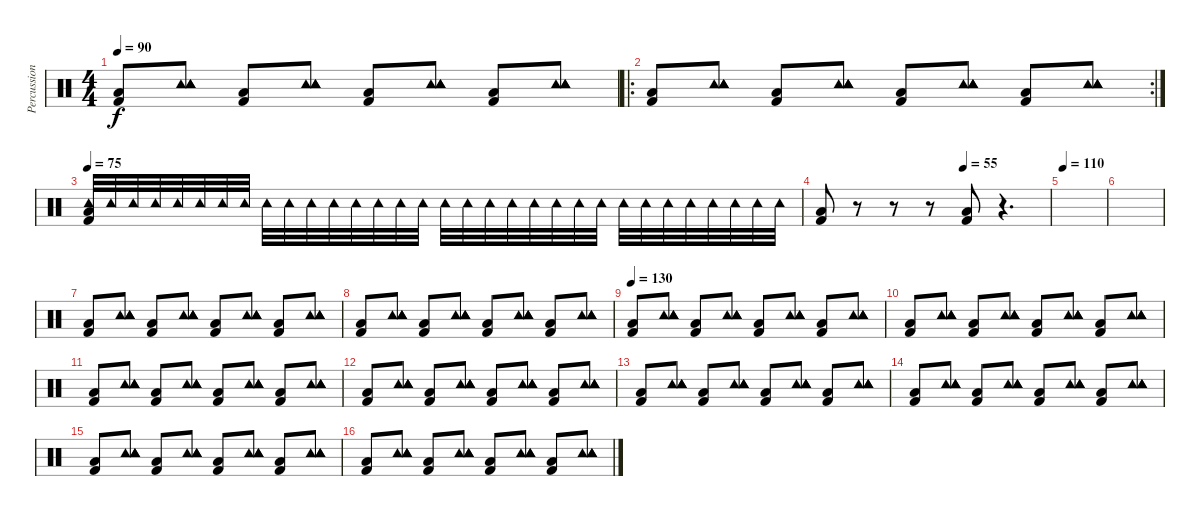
\track ("Percussion" "Percussion") {instrument percussion}
\staff {score}
\articulation defaults
\ts (4 4)
\tempo 90
\clef neutral
\ks c
("Kick (hit) 2" "Low Floor Tom (hit)").8{dy f} ("Tambourine (hit)" "Tambourine (hit)" "Tambourine (hit)" "Tambourine (hit)").8 ("Kick (hit) 2" "Low Floor Tom (hit)").8 ("Tambourine (hit)" "Tambourine (hit)" "Tambourine (hit)" "Tambourine (hit)").8 ("Kick (hit) 2" "Low Floor Tom (hit)").8 ("Tambourine (hit)" "Tambourine (hit)" "Tambourine (hit)" "Tambourine (hit)").8 ("Kick (hit) 2" "Low Floor Tom (hit)").8 ("Tambourine (hit)" "Tambourine (hit)" "Tambourine (hit)" "Tambourine (hit)").8 |
\ro
\rc 2
("Kick (hit) 2" "Low Floor Tom (hit)").8 ("Tambourine (hit)" "Tambourine (hit)" "Tambourine (hit)" "Tambourine (hit)").8 ("Kick (hit) 2" "Low Floor Tom (hit)").8 ("Tambourine (hit)" "Tambourine (hit)" "Tambourine (hit)" "Tambourine (hit)").8 ("Kick (hit) 2" "Low Floor Tom (hit)").8 ("Tambourine (hit)" "Tambourine (hit)" "Tambourine (hit)" "Tambourine (hit)").8 ("Kick (hit) 2" "Low Floor Tom (hit)").8 ("Tambourine (hit)" "Tambourine (hit)" "Tambourine (hit)" "Tambourine (hit)").8 |
\tempo 75
("Tambourine (hit)" "Kick (hit) 2" "Low Floor Tom (hit)").32{volume 6} "Tambourine (hit)".32 "Tambourine (hit)".32 "Tambourine (hit)".32 "Tambourine (hit)".32 "Tambourine (hit)".32 "Tambourine (hit)".32 "Tambourine (hit)".32 "Tambourine (hit)".32 "Tambourine (hit)".32 "Tambourine (hit)".32 "Tambourine (hit)".32 "Tambourine (hit)".32 "Tambourine (hit)".32 "Tambourine (hit)".32 "Tambourine (hit)".32 "Tambourine (hit)".32 "Tambourine (hit)".32 "Tambourine (hit)".32 "Tambourine (hit)".32 "Tambourine (hit)".32 "Tambourine (hit)".32 "Tambourine (hit)".32 "Tambourine (hit)".32 "Tambourine (hit)".32 "Tambourine (hit)".32 "Tambourine (hit)".32 "Tambourine (hit)".32 "Tambourine (hit)".32 "Tambourine (hit)".32 "Tambourine (hit)".32 "Tambourine (hit)".32 |
\tempo (55 0.625)
("Kick (hit) 2" "Low Floor Tom (hit)").8 r.8 r.8 r.8 ("Kick (hit) 2" "Low Floor Tom (hit)").8 r.4{d} |
\tempo 110
|
|
("Kick (hit) 2" "Low Floor Tom (hit)").8 ("Tambourine (hit)" "Tambourine (hit)" "Tambourine (hit)" "Tambourine (hit)").8 ("Kick (hit) 2" "Low Floor Tom (hit)").8 ("Tambourine (hit)" "Tambourine (hit)" "Tambourine (hit)" "Tambourine (hit)").8 ("Kick (hit) 2" "Low Floor Tom (hit)").8 ("Tambourine (hit)" "Tambourine (hit)" "Tambourine (hit)" "Tambourine (hit)").8 ("Kick (hit) 2" "Low Floor Tom (hit)").8 ("Tambourine (hit)" "Tambourine (hit)" "Tambourine (hit)" "Tambourine (hit)").8 |
("Kick (hit) 2" "Low Floor Tom (hit)").8 ("Tambourine (hit)" "Tambourine (hit)" "Tambourine (hit)" "Tambourine (hit)").8 ("Kick (hit) 2" "Low Floor Tom (hit)").8 ("Tambourine (hit)" "Tambourine (hit)" "Tambourine (hit)" "Tambourine (hit)").8 ("Kick (hit) 2" "Low Floor Tom (hit)").8 ("Tambourine (hit)" "Tambourine (hit)" "Tambourine (hit)" "Tambourine (hit)").8 ("Kick (hit) 2" "Low Floor Tom (hit)").8 ("Tambourine (hit)" "Tambourine (hit)" "Tambourine (hit)" "Tambourine (hit)").8 |
\tempo 130
("Kick (hit) 2" "Low Floor Tom (hit)").8 ("Tambourine (hit)" "Tambourine (hit)" "Tambourine (hit)" "Tambourine (hit)").8 ("Kick (hit) 2" "Low Floor Tom (hit)").8 ("Tambourine (hit)" "Tambourine (hit)" "Tambourine (hit)" "Tambourine (hit)").8 ("Kick (hit) 2" "Low Floor Tom (hit)").8 ("Tambourine (hit)" "Tambourine (hit)" "Tambourine (hit)" "Tambourine (hit)").8 ("Kick (hit) 2" "Low Floor Tom (hit)").8 ("Tambourine (hit)" "Tambourine (hit)" "Tambourine (hit)" "Tambourine (hit)").8 |
("Kick (hit) 2" "Low Floor Tom (hit)").8 ("Tambourine (hit)" "Tambourine (hit)" "Tambourine (hit)" "Tambourine (hit)").8 ("Kick (hit) 2" "Low Floor Tom (hit)").8 ("Tambourine (hit)" "Tambourine (hit)" "Tambourine (hit)" "Tambourine (hit)").8 ("Kick (hit) 2" "Low Floor Tom (hit)").8 ("Tambourine (hit)" "Tambourine (hit)" "Tambourine (hit)" "Tambourine (hit)").8 ("Kick (hit) 2" "Low Floor Tom (hit)").8 ("Tambourine (hit)" "Tambourine (hit)" "Tambourine (hit)" "Tambourine (hit)").8 |
("Kick (hit) 2" "Low Floor Tom (hit)").8 ("Tambourine (hit)" "Tambourine (hit)" "Tambourine (hit)" "Tambourine (hit)").8 ("Kick (hit) 2" "Low Floor Tom (hit)").8 ("Tambourine (hit)" "Tambourine (hit)" "Tambourine (hit)" "Tambourine (hit)").8 ("Kick (hit) 2" "Low Floor Tom (hit)").8 ("Tambourine (hit)" "Tambourine (hit)" "Tambourine (hit)" "Tambourine (hit)").8 ("Kick (hit) 2" "Low Floor Tom (hit)").8 ("Tambourine (hit)" "Tambourine (hit)" "Tambourine (hit)" "Tambourine (hit)").8 |
("Kick (hit) 2" "Low Floor Tom (hit)").8 ("Tambourine (hit)" "Tambourine (hit)" "Tambourine (hit)" "Tambourine (hit)").8 ("Kick (hit) 2" "Low Floor Tom (hit)").8 ("Tambourine (hit)" "Tambourine (hit)" "Tambourine (hit)" "Tambourine (hit)").8 ("Kick (hit) 2" "Low Floor Tom (hit)").8 ("Tambourine (hit)" "Tambourine (hit)" "Tambourine (hit)" "Tambourine (hit)").8 ("Kick (hit) 2" "Low Floor Tom (hit)").8 ("Tambourine (hit)" "Tambourine (hit)" "Tambourine (hit)" "Tambourine (hit)").8 |
("Kick (hit) 2" "Low Floor Tom (hit)").8 ("Tambourine (hit)" "Tambourine (hit)" "Tambourine (hit)" "Tambourine (hit)").8 ("Kick (hit) 2" "Low Floor Tom (hit)").8 ("Tambourine (hit)" "Tambourine (hit)" "Tambourine (hit)" "Tambourine (hit)").8 ("Kick (hit) 2" "Low Floor Tom (hit)").8 ("Tambourine (hit)" "Tambourine (hit)" "Tambourine (hit)" "Tambourine (hit)").8 ("Kick (hit) 2" "Low Floor Tom (hit)").8 ("Tambourine (hit)" "Tambourine (hit)" "Tambourine (hit)" "Tambourine (hit)").8 |
("Kick (hit) 2" "Low Floor Tom (hit)").8 ("Tambourine (hit)" "Tambourine (hit)" "Tambourine (hit)" "Tambourine (hit)").8 ("Kick (hit) 2" "Low Floor Tom (hit)").8 ("Tambourine (hit)" "Tambourine (hit)" "Tambourine (hit)" "Tambourine (hit)").8 ("Kick (hit) 2" "Low Floor Tom (hit)").8 ("Tambourine (hit)" "Tambourine (hit)" "Tambourine (hit)" "Tambourine (hit)").8 ("Kick (hit) 2" "Low Floor Tom (hit)").8 ("Tambourine (hit)" "Tambourine (hit)" "Tambourine (hit)" "Tambourine (hit)").8 |
("Kick (hit) 2" "Low Floor Tom (hit)").8 ("Tambourine (hit)" "Tambourine (hit)" "Tambourine (hit)" "Tambourine (hit)").8 ("Kick (hit) 2" "Low Floor Tom (hit)").8 ("Tambourine (hit)" "Tambourine (hit)" "Tambourine (hit)" "Tambourine (hit)").8 ("Kick (hit) 2" "Low Floor Tom (hit)").8 ("Tambourine (hit)" "Tambourine (hit)" "Tambourine (hit)" "Tambourine (hit)").8 ("Kick (hit) 2" "Low Floor Tom (hit)").8 ("Tambourine (hit)" "Tambourine (hit)" "Tambourine (hit)" "Tambourine (hit)").8 |
("Kick (hit) 2" "Low Floor Tom (hit)").8 ("Tambourine (hit)" "Tambourine (hit)" "Tambourine (hit)" "Tambourine (hit)").8 ("Kick (hit) 2" "Low Floor Tom (hit)").8 ("Tambourine (hit)" "Tambourine (hit)" "Tambourine (hit)" "Tambourine (hit)").8 ("Kick (hit) 2" "Low Floor Tom (hit)").8 ("Tambourine (hit)" "Tambourine (hit)" "Tambourine (hit)" "Tambourine (hit)").8 ("Kick (hit) 2" "Low Floor Tom (hit)").8 ("Tambourine (hit)" "Tambourine (hit)" "Tambourine (hit)" "Tambourine (hit)").8
